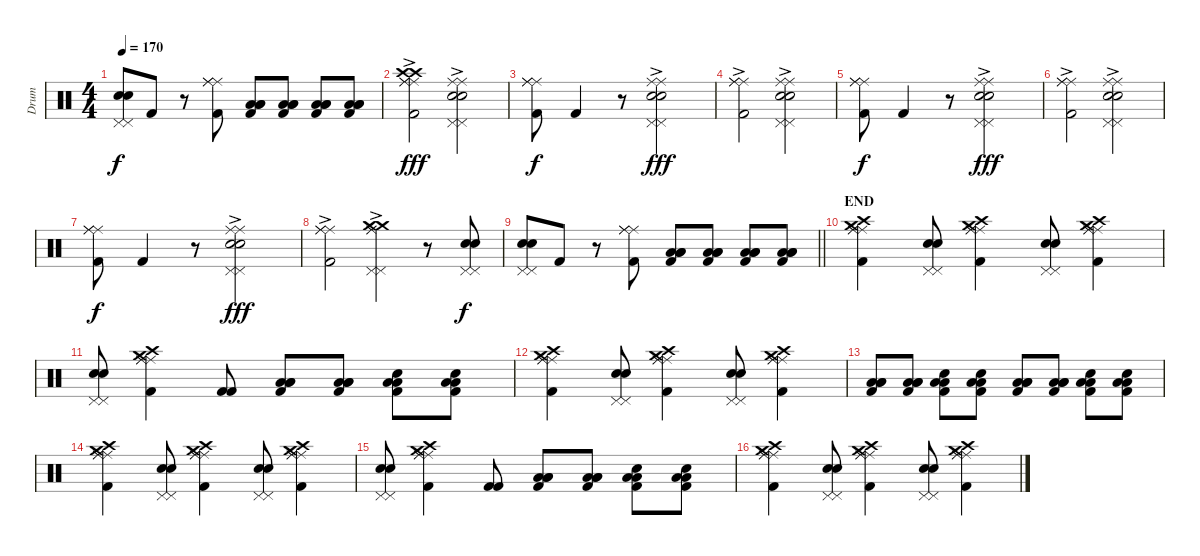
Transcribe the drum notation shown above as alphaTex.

\track ("Drum" "Drum") {instrument percussion}
\staff {score}
\articulation defaults
\ts (4 4)
\tempo 170
\clef neutral
\ks c
("Electric Snare (hit)" "Electric Snare (hit)" "Pedal Hi-Hat (hit)" "Pedal Hi-Hat (hit)").8{dy f} "Kick (hit) 2".8 r.8 ("Kick (hit) 2" "Ride (middle)" "Ride (middle)" "Ride (middle)").8 ("Kick (hit) 2" "Low Tom (hit)" "Low Floor Tom (hit)" "Low Floor Tom (hit)").8 ("Kick (hit) 2" "Low Tom (hit)" "Low Floor Tom (hit)" "Low Floor Tom (hit)").8 ("Kick (hit) 2" "Low Tom (hit)" "Low Floor Tom (hit)" "Low Floor Tom (hit)").8 ("Kick (hit) 2" "Low Tom (hit)" "Low Floor Tom (hit)" "Low Floor Tom (hit)").8 |
("Crash high (hit)" "Crash high (hit)" "Kick (hit) 2" "Ride (middle)" "Ride (middle)" "Ride (middle)"{ac}).2{dy fff} ("Electric Snare (hit)" "Electric Snare (hit)" "Pedal Hi-Hat (hit)" "Pedal Hi-Hat (hit)" "Ride (middle)" "Ride (middle)"{ac}).2 |
("Kick (hit) 2" "Ride (middle)" "Ride (middle)" "Ride (middle)").8{dy f} "Kick (hit) 2".4 r.8 ("Electric Snare (hit)" "Electric Snare (hit)" "Pedal Hi-Hat (hit)" "Pedal Hi-Hat (hit)" "Ride (middle)" "Ride (middle)"{ac}).2{dy fff} |
("Kick (hit) 2" "Ride (middle)" "Ride (middle)" "Ride (middle)"{ac}).2 ("Electric Snare (hit)" "Electric Snare (hit)" "Pedal Hi-Hat (hit)" "Pedal Hi-Hat (hit)" "Ride (middle)" "Ride (middle)"{ac}).2 |
("Kick (hit) 2" "Ride (middle)" "Ride (middle)" "Ride (middle)").8{dy f} "Kick (hit) 2".4 r.8 ("Electric Snare (hit)" "Electric Snare (hit)" "Pedal Hi-Hat (hit)" "Pedal Hi-Hat (hit)" "Ride (middle)" "Ride (middle)"{ac}).2{dy fff} |
("Kick (hit) 2" "Ride (middle)" "Ride (middle)" "Ride (middle)"{ac}).2 ("Electric Snare (hit)" "Electric Snare (hit)" "Pedal Hi-Hat (hit)" "Pedal Hi-Hat (hit)" "Ride (middle)" "Ride (middle)"{ac}).2 |
("Kick (hit) 2" "Ride (middle)" "Ride (middle)" "Ride (middle)").8{dy f} "Kick (hit) 2".4 r.8 ("Electric Snare (hit)" "Electric Snare (hit)" "Pedal Hi-Hat (hit)" "Pedal Hi-Hat (hit)" "Ride (middle)" "Ride (middle)"{ac}).2{dy fff} |
("Kick (hit) 2" "Ride (middle)" "Ride (middle)" "Ride (middle)"{ac}).2 ("Crash medium (hit)" "Crash medium (hit)" "Pedal Hi-Hat (hit)" "Pedal Hi-Hat (hit)" "Ride (middle)" "Ride (middle)"{ac}).4 r.8 ("Electric Snare (hit)" "Electric Snare (hit)" "Pedal Hi-Hat (hit)" "Pedal Hi-Hat (hit)").8{dy f} |
\barLineRight lightlight
("Electric Snare (hit)" "Electric Snare (hit)" "Pedal Hi-Hat (hit)" "Pedal Hi-Hat (hit)").8 "Kick (hit) 2".8 r.8 ("Kick (hit) 2" "Ride (middle)" "Ride (middle)" "Ride (middle)").8 ("Kick (hit) 2" "Low Tom (hit)" "Low Floor Tom (hit)" "Low Floor Tom (hit)").8 ("Kick (hit) 2" "Low Tom (hit)" "Low Floor Tom (hit)" "Low Floor Tom (hit)").8 ("Kick (hit) 2" "Low Tom (hit)" "Low Floor Tom (hit)" "Low Floor Tom (hit)").8 ("Kick (hit) 2" "Low Tom (hit)" "Low Floor Tom (hit)" "Low Floor Tom (hit)").8 |
\section ("" "END")
("Crash high (hit)" "Crash medium (hit)" "Kick (hit) 2" "Ride (middle)" "Ride (middle)" "Ride (middle)").4 ("Electric Snare (hit)" "Electric Snare (hit)" "Pedal Hi-Hat (hit)" "Pedal Hi-Hat (hit)").8 ("Crash high (hit)" "Crash medium (hit)" "Kick (hit) 2" "Ride (middle)" "Ride (middle)" "Ride (middle)").4 ("Electric Snare (hit)" "Electric Snare (hit)" "Pedal Hi-Hat (hit)" "Pedal Hi-Hat (hit)").8 ("Crash high (hit)" "Crash medium (hit)" "Kick (hit) 2" "Ride (middle)" "Ride (middle)" "Ride (middle)").4 |
("Electric Snare (hit)" "Electric Snare (hit)" "Pedal Hi-Hat (hit)" "Pedal Hi-Hat (hit)").8 ("Crash high (hit)" "Crash medium (hit)" "Kick (hit) 2" "Ride (middle)" "Ride (middle)" "Ride (middle)").4 ("Kick (hit) 2" "Kick (hit) 2").8 ("Low Tom (hit)" "Low Tom (hit)" "Low Floor Tom (hit)" "Kick (hit) 2").8 ("Low Tom (hit)" "Low Tom (hit)" "Low Floor Tom (hit)" "Kick (hit) 2").8 ("Low Tom (hit)" "Electric Snare (hit)" "Low Floor Tom (hit)" "Kick (hit) 2").8 ("Low Tom (hit)" "Electric Snare (hit)" "Low Floor Tom (hit)" "Kick (hit) 2").8 |
("Crash high (hit)" "Crash medium (hit)" "Kick (hit) 2" "Ride (middle)" "Ride (middle)" "Ride (middle)").4 ("Electric Snare (hit)" "Electric Snare (hit)" "Pedal Hi-Hat (hit)" "Pedal Hi-Hat (hit)").8 ("Crash high (hit)" "Crash medium (hit)" "Kick (hit) 2" "Ride (middle)" "Ride (middle)" "Ride (middle)").4 ("Electric Snare (hit)" "Electric Snare (hit)" "Pedal Hi-Hat (hit)" "Pedal Hi-Hat (hit)").8 ("Crash high (hit)" "Crash medium (hit)" "Kick (hit) 2" "Ride (middle)" "Ride (middle)" "Ride (middle)").4 |
("Low Tom (hit)" "Low Tom (hit)" "Low Floor Tom (hit)" "Kick (hit) 2").8 ("Low Tom (hit)" "Low Tom (hit)" "Low Floor Tom (hit)" "Kick (hit) 2").8 ("Low Tom (hit)" "Electric Snare (hit)" "Low Floor Tom (hit)" "Kick (hit) 2").8 ("Low Tom (hit)" "Electric Snare (hit)" "Low Floor Tom (hit)" "Kick (hit) 2").8 ("Low Tom (hit)" "Low Tom (hit)" "Low Floor Tom (hit)" "Kick (hit) 2").8 ("Low Tom (hit)" "Low Tom (hit)" "Low Floor Tom (hit)" "Kick (hit) 2").8 ("Low Tom (hit)" "Electric Snare (hit)" "Low Floor Tom (hit)" "Kick (hit) 2").8 ("Low Tom (hit)" "Electric Snare (hit)" "Low Floor Tom (hit)" "Kick (hit) 2").8 |
("Crash high (hit)" "Crash medium (hit)" "Kick (hit) 2" "Ride (middle)" "Ride (middle)" "Ride (middle)").4 ("Electric Snare (hit)" "Electric Snare (hit)" "Pedal Hi-Hat (hit)" "Pedal Hi-Hat (hit)").8 ("Crash high (hit)" "Crash medium (hit)" "Kick (hit) 2" "Ride (middle)" "Ride (middle)" "Ride (middle)").4 ("Electric Snare (hit)" "Electric Snare (hit)" "Pedal Hi-Hat (hit)" "Pedal Hi-Hat (hit)").8 ("Crash high (hit)" "Crash medium (hit)" "Kick (hit) 2" "Ride (middle)" "Ride (middle)" "Ride (middle)").4 |
("Electric Snare (hit)" "Electric Snare (hit)" "Pedal Hi-Hat (hit)" "Pedal Hi-Hat (hit)").8 ("Crash high (hit)" "Crash medium (hit)" "Kick (hit) 2" "Ride (middle)" "Ride (middle)" "Ride (middle)").4 ("Kick (hit) 2" "Kick (hit) 2").8 ("Low Tom (hit)" "Low Tom (hit)" "Low Floor Tom (hit)" "Kick (hit) 2").8 ("Low Tom (hit)" "Low Tom (hit)" "Low Floor Tom (hit)" "Kick (hit) 2").8 ("Low Tom (hit)" "Electric Snare (hit)" "Low Floor Tom (hit)" "Kick (hit) 2").8 ("Low Tom (hit)" "Electric Snare (hit)" "Low Floor Tom (hit)" "Kick (hit) 2").8 |
("Crash high (hit)" "Crash medium (hit)" "Kick (hit) 2" "Ride (middle)" "Ride (middle)" "Ride (middle)").4 ("Electric Snare (hit)" "Electric Snare (hit)" "Pedal Hi-Hat (hit)" "Pedal Hi-Hat (hit)").8 ("Crash high (hit)" "Crash medium (hit)" "Kick (hit) 2" "Ride (middle)" "Ride (middle)" "Ride (middle)").4 ("Electric Snare (hit)" "Electric Snare (hit)" "Pedal Hi-Hat (hit)" "Pedal Hi-Hat (hit)").8 ("Crash high (hit)" "Crash medium (hit)" "Kick (hit) 2" "Ride (middle)" "Ride (middle)" "Ride (middle)").4
